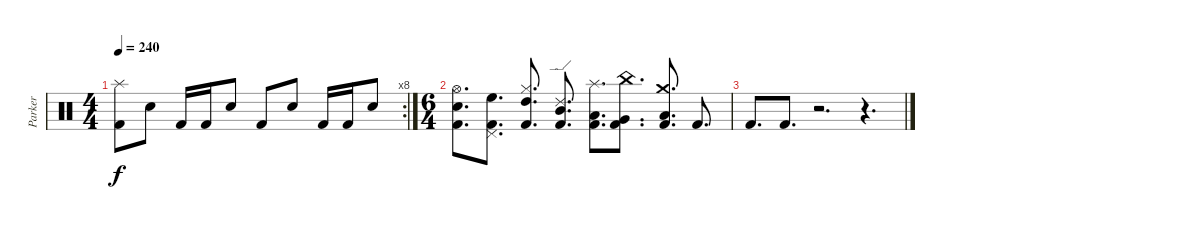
\track ("Parker" "Parker") {instrument percussion}
\staff {score}
\articulation defaults
\rc 8
\ts (4 4)
\tempo 240
\clef neutral
\ks c
("Splash (hit)" "Kick (hit) 2").8{dy f} "Electric Snare (hit)".8 "Kick (hit) 2".16 "Kick (hit) 2".16 "Electric Snare (hit)".8 "Kick (hit) 2".8 "Electric Snare (hit)".8 "Kick (hit) 2".16 "Kick (hit) 2".16 "Electric Snare (hit)".8 |
\ts (6 4)
("Hi-Hat (open)" "Electric Snare (hit)" "Kick (hit) 2").8{d} ("Pedal Hi-Hat (hit)" "High Floor Tom (hit)" "Kick (hit) 2").8{d} ("Hi-Hat (closed)" "High Tom (hit)" "Kick (hit) 2").8{d} ("Ride (edge) 2" "Mid Tom (hit)" "Kick (hit) 2").8{d} ("Splash (hit)" "Low Tom (hit)" "Kick (hit) 2").8{d} ("China (hit)" "Very Low Tom (hit)" "Kick (hit) 2").8{d} ("Crash medium (hit)" "Low Floor Tom (hit)" "Kick (hit) 2").8{d} "Kick (hit) 2".8{d} |
"Kick (hit) 2".8{d} "Kick (hit) 2".8{d} r.2{d} r.4{d}
